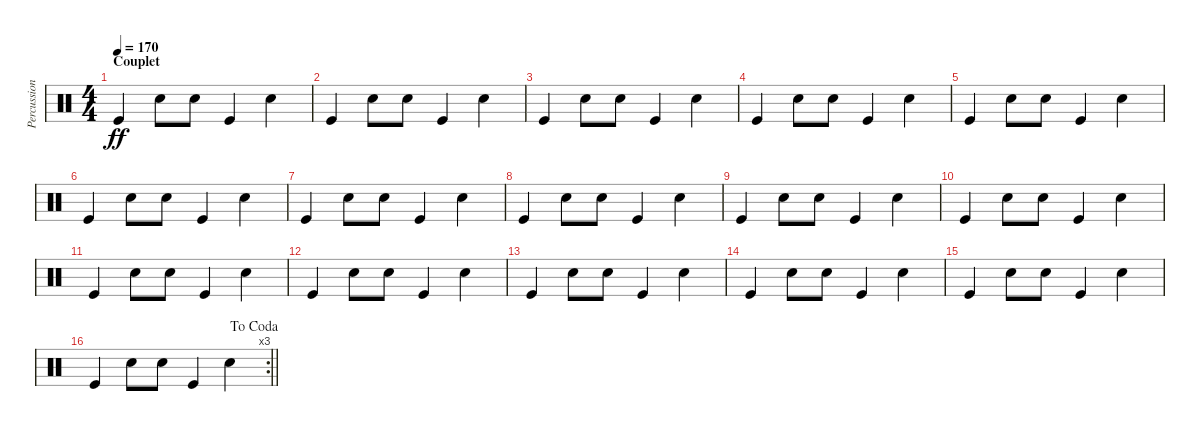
\track ("Percussions" "Percussion") {instrument percussion}
\staff {score}
\articulation defaults
\ts (4 4)
\section ("" "Couplet ")
\tempo 170
\clef neutral
\ks c "Kick (hit)".4{dy ff} "Snare (hit) 2".8 "Snare (hit) 2".8 "Kick (hit)".4 "Snare (hit) 2".4
|
"Kick (hit)".4 "Snare (hit) 2".8 "Snare (hit) 2".8 "Kick (hit)".4 "Snare (hit) 2".4 |
"Kick (hit)".4 "Snare (hit) 2".8 "Snare (hit) 2".8 "Kick (hit)".4 "Snare (hit) 2".4 |
"Kick (hit)".4 "Snare (hit) 2".8 "Snare (hit) 2".8 "Kick (hit)".4 "Snare (hit) 2".4 |
"Kick (hit)".4 "Snare (hit) 2".8 "Snare (hit) 2".8 "Kick (hit)".4 "Snare (hit) 2".4 |
"Kick (hit)".4 "Snare (hit) 2".8 "Snare (hit) 2".8 "Kick (hit)".4 "Snare (hit) 2".4 |
"Kick (hit)".4 "Snare (hit) 2".8 "Snare (hit) 2".8 "Kick (hit)".4 "Snare (hit) 2".4 |
"Kick (hit)".4 "Snare (hit) 2".8 "Snare (hit) 2".8 "Kick (hit)".4 "Snare (hit) 2".4 |
"Kick (hit)".4 "Snare (hit) 2".8 "Snare (hit) 2".8 "Kick (hit)".4 "Snare (hit) 2".4 |
"Kick (hit)".4 "Snare (hit) 2".8 "Snare (hit) 2".8 "Kick (hit)".4 "Snare (hit) 2".4 |
"Kick (hit)".4 "Snare (hit) 2".8 "Snare (hit) 2".8 "Kick (hit)".4 "Snare (hit) 2".4 |
"Kick (hit)".4 "Snare (hit) 2".8 "Snare (hit) 2".8 "Kick (hit)".4 "Snare (hit) 2".4 |
"Kick (hit)".4 "Snare (hit) 2".8 "Snare (hit) 2".8 "Kick (hit)".4 "Snare (hit) 2".4 |
"Kick (hit)".4 "Snare (hit) 2".8 "Snare (hit) 2".8 "Kick (hit)".4 "Snare (hit) 2".4 |
"Kick (hit)".4 "Snare (hit) 2".8 "Snare (hit) 2".8 "Kick (hit)".4 "Snare (hit) 2".4 |
\rc 3
\jump dacoda
\barLineRight lightlight "Kick (hit)".4 "Snare (hit) 2".8 "Snare (hit) 2".8 "Kick (hit)".4 "Snare (hit) 2".4
